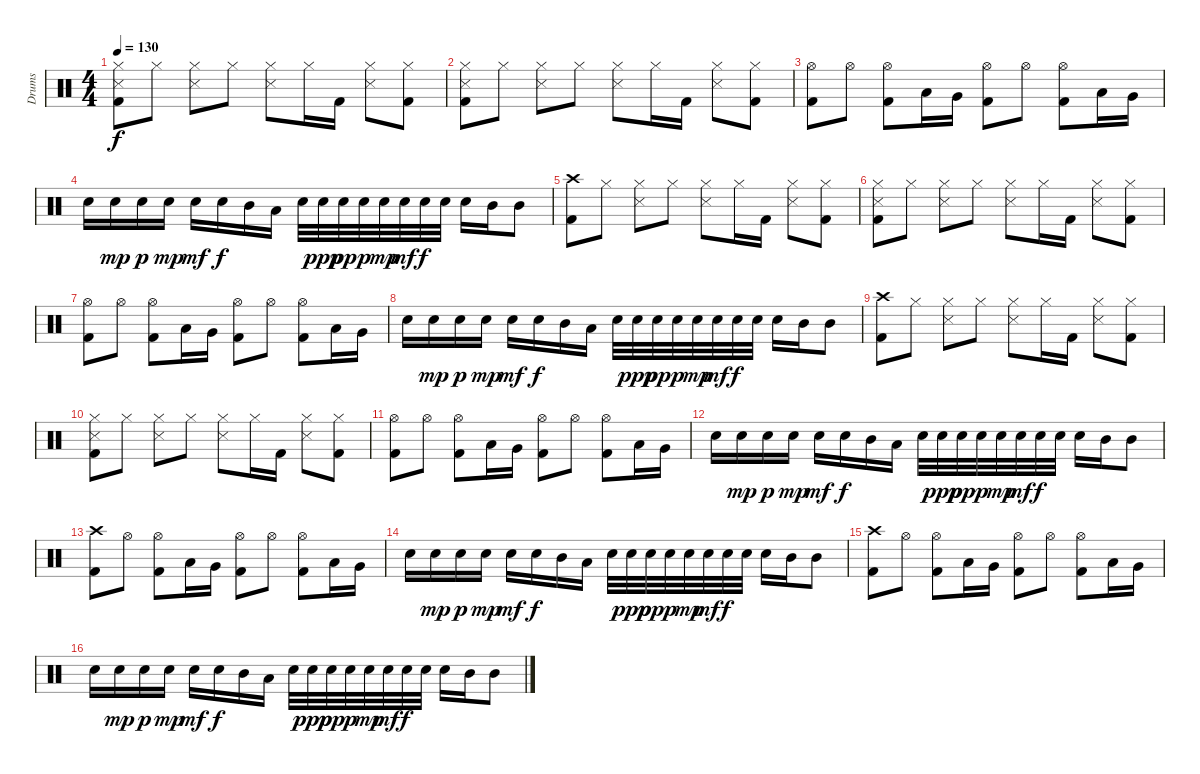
\track ("Drums" "Drums") {instrument percussion}
\staff {score}
\articulation defaults
\ts (4 4)
\tempo 130
\clef neutral
\ks c
("Hi-Hat (closed)" "Snare (side stick) 3" "Kick (hit) 2").8{dy f} "Hi-Hat (closed)".8 ("Hi-Hat (closed)" "Snare (side stick) 3").8 "Hi-Hat (closed)".8 ("Hi-Hat (closed)" "Snare (side stick) 3").8 "Hi-Hat (closed)".16 "Kick (hit) 2".16 ("Hi-Hat (closed)" "Snare (side stick) 3").8 ("Hi-Hat (closed)" "Kick (hit) 2").8 |
("Hi-Hat (closed)" "Snare (side stick) 3" "Kick (hit) 2").8 "Hi-Hat (closed)".8 ("Hi-Hat (closed)" "Snare (side stick) 3").8 "Hi-Hat (closed)".8 ("Hi-Hat (closed)" "Snare (side stick) 3").8 "Hi-Hat (closed)".16 "Kick (hit) 2".16 ("Hi-Hat (closed)" "Snare (side stick) 3").8 ("Hi-Hat (closed)" "Kick (hit) 2").8 |
("Hi-Hat (open)" "Kick (hit) 2").8 "Hi-Hat (open)".8 ("Hi-Hat (open)" "Kick (hit) 2").8 "Low Tom (hit)".16 "Very Low Tom (hit)".16 ("Hi-Hat (open)" "Kick (hit) 2").8 "Hi-Hat (open)".8 ("Hi-Hat (open)" "Kick (hit) 2").8 "Low Tom (hit)".16 "Very Low Tom (hit)".16 |
"Electric Snare (hit)".16 "Electric Snare (hit)".16{dy mp} "Electric Snare (hit)".16{dy p} "Electric Snare (hit)".16{dy mp} "Electric Snare (hit)".16{dy mf} "Electric Snare (hit)".16{dy f} "Mid Tom (hit)".16 "Low Tom (hit)".16 "Electric Snare (hit)".32 "Electric Snare (hit)".32{dy ppp} "Electric Snare (hit)".32{dy pp} "Electric Snare (hit)".32{dy p} "Electric Snare (hit)".32{dy mp} "Electric Snare (hit)".32{dy mf} "Electric Snare (hit)".32{dy f} "Electric Snare (hit)".32 "Electric Snare (hit)".16 "Mid Tom (hit)".16 "Mid Tom (hit)".8 |
("Crash high (hit)" "Kick (hit) 2").8 "Hi-Hat (closed)".8 ("Hi-Hat (closed)" "Snare (side stick) 3").8 "Hi-Hat (closed)".8 ("Hi-Hat (closed)" "Snare (side stick) 3").8 "Hi-Hat (closed)".16 "Kick (hit) 2".16 ("Hi-Hat (closed)" "Snare (side stick) 3").8 ("Hi-Hat (closed)" "Kick (hit) 2").8 |
("Hi-Hat (closed)" "Snare (side stick) 3" "Kick (hit) 2").8 "Hi-Hat (closed)".8 ("Hi-Hat (closed)" "Snare (side stick) 3").8 "Hi-Hat (closed)".8 ("Hi-Hat (closed)" "Snare (side stick) 3").8 "Hi-Hat (closed)".16 "Kick (hit) 2".16 ("Hi-Hat (closed)" "Snare (side stick) 3").8 ("Hi-Hat (closed)" "Kick (hit) 2").8 |
("Hi-Hat (open)" "Kick (hit) 2").8 "Hi-Hat (open)".8 ("Hi-Hat (open)" "Kick (hit) 2").8 "Low Tom (hit)".16 "Very Low Tom (hit)".16 ("Hi-Hat (open)" "Kick (hit) 2").8 "Hi-Hat (open)".8 ("Hi-Hat (open)" "Kick (hit) 2").8 "Low Tom (hit)".16 "Very Low Tom (hit)".16 |
"Electric Snare (hit)".16 "Electric Snare (hit)".16{dy mp} "Electric Snare (hit)".16{dy p} "Electric Snare (hit)".16{dy mp} "Electric Snare (hit)".16{dy mf} "Electric Snare (hit)".16{dy f} "Mid Tom (hit)".16 "Low Tom (hit)".16 "Electric Snare (hit)".32 "Electric Snare (hit)".32{dy ppp} "Electric Snare (hit)".32{dy pp} "Electric Snare (hit)".32{dy p} "Electric Snare (hit)".32{dy mp} "Electric Snare (hit)".32{dy mf} "Electric Snare (hit)".32{dy f} "Electric Snare (hit)".32 "Electric Snare (hit)".16 "Mid Tom (hit)".16 "Mid Tom (hit)".8 |
("Crash high (hit)" "Kick (hit) 2").8 "Hi-Hat (closed)".8 ("Hi-Hat (closed)" "Snare (side stick) 3").8 "Hi-Hat (closed)".8 ("Hi-Hat (closed)" "Snare (side stick) 3").8 "Hi-Hat (closed)".16 "Kick (hit) 2".16 ("Hi-Hat (closed)" "Snare (side stick) 3").8 ("Hi-Hat (closed)" "Kick (hit) 2").8 |
("Hi-Hat (closed)" "Snare (side stick) 3" "Kick (hit) 2").8 "Hi-Hat (closed)".8 ("Hi-Hat (closed)" "Snare (side stick) 3").8 "Hi-Hat (closed)".8 ("Hi-Hat (closed)" "Snare (side stick) 3").8 "Hi-Hat (closed)".16 "Kick (hit) 2".16 ("Hi-Hat (closed)" "Snare (side stick) 3").8 ("Hi-Hat (closed)" "Kick (hit) 2").8 |
("Hi-Hat (open)" "Kick (hit) 2").8 "Hi-Hat (open)".8 ("Hi-Hat (open)" "Kick (hit) 2").8 "Low Tom (hit)".16 "Very Low Tom (hit)".16 ("Hi-Hat (open)" "Kick (hit) 2").8 "Hi-Hat (open)".8 ("Hi-Hat (open)" "Kick (hit) 2").8 "Low Tom (hit)".16 "Very Low Tom (hit)".16 |
"Electric Snare (hit)".16 "Electric Snare (hit)".16{dy mp} "Electric Snare (hit)".16{dy p} "Electric Snare (hit)".16{dy mp} "Electric Snare (hit)".16{dy mf} "Electric Snare (hit)".16{dy f} "Mid Tom (hit)".16 "Low Tom (hit)".16 "Electric Snare (hit)".32 "Electric Snare (hit)".32{dy ppp} "Electric Snare (hit)".32{dy pp} "Electric Snare (hit)".32{dy p} "Electric Snare (hit)".32{dy mp} "Electric Snare (hit)".32{dy mf} "Electric Snare (hit)".32{dy f} "Electric Snare (hit)".32 "Electric Snare (hit)".16 "Mid Tom (hit)".16 "Mid Tom (hit)".8 |
("Crash high (hit)" "Kick (hit) 2").8 "Hi-Hat (open)".8 ("Hi-Hat (open)" "Kick (hit) 2").8 "Low Tom (hit)".16 "Very Low Tom (hit)".16 ("Hi-Hat (open)" "Kick (hit) 2").8 "Hi-Hat (open)".8 ("Hi-Hat (open)" "Kick (hit) 2").8 "Low Tom (hit)".16 "Very Low Tom (hit)".16 |
"Electric Snare (hit)".16 "Electric Snare (hit)".16{dy mp} "Electric Snare (hit)".16{dy p} "Electric Snare (hit)".16{dy mp} "Electric Snare (hit)".16{dy mf} "Electric Snare (hit)".16{dy f} "Mid Tom (hit)".16 "Low Tom (hit)".16 "Electric Snare (hit)".32 "Electric Snare (hit)".32{dy ppp} "Electric Snare (hit)".32{dy pp} "Electric Snare (hit)".32{dy p} "Electric Snare (hit)".32{dy mp} "Electric Snare (hit)".32{dy mf} "Electric Snare (hit)".32{dy f} "Electric Snare (hit)".32 "Electric Snare (hit)".16 "Mid Tom (hit)".16 "Mid Tom (hit)".8 |
("Crash high (hit)" "Kick (hit) 2").8 "Hi-Hat (open)".8 ("Hi-Hat (open)" "Kick (hit) 2").8 "Low Tom (hit)".16 "Very Low Tom (hit)".16 ("Hi-Hat (open)" "Kick (hit) 2").8 "Hi-Hat (open)".8 ("Hi-Hat (open)" "Kick (hit) 2").8 "Low Tom (hit)".16 "Very Low Tom (hit)".16 |
"Electric Snare (hit)".16 "Electric Snare (hit)".16{dy mp} "Electric Snare (hit)".16{dy p} "Electric Snare (hit)".16{dy mp} "Electric Snare (hit)".16{dy mf} "Electric Snare (hit)".16{dy f} "Mid Tom (hit)".16 "Low Tom (hit)".16 "Electric Snare (hit)".32 "Electric Snare (hit)".32{dy ppp} "Electric Snare (hit)".32{dy pp} "Electric Snare (hit)".32{dy p} "Electric Snare (hit)".32{dy mp} "Electric Snare (hit)".32{dy mf} "Electric Snare (hit)".32{dy f} "Electric Snare (hit)".32 "Electric Snare (hit)".16 "Mid Tom (hit)".16 "Mid Tom (hit)".8
